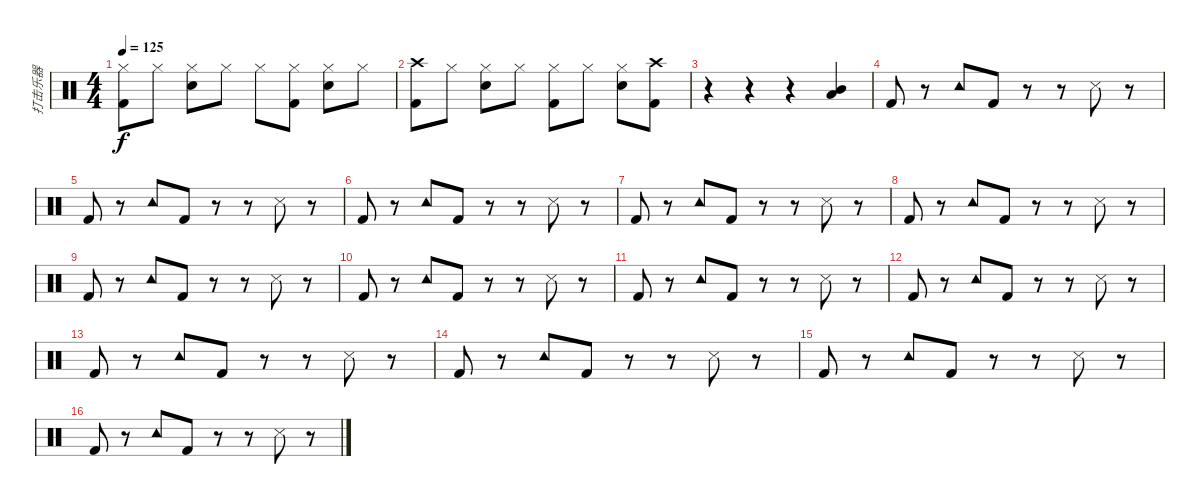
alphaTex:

\track ("打击乐器" "打击乐器") {instrument percussion}
\staff {score}
\articulation defaults
\ts (4 4)
\tempo 125
\clef neutral
\ks c
("Hi-Hat (closed)" "Kick (hit) 2").8{dy f} "Hi-Hat (closed)".8 ("Hi-Hat (closed)" "Snare (hit) 2").8 "Hi-Hat (closed)".8 "Hi-Hat (closed)".8 ("Hi-Hat (closed)" "Kick (hit) 2").8 ("Hi-Hat (closed)" "Snare (hit) 2").8 "Hi-Hat (closed)".8 |
("Crash high (hit)" "Kick (hit) 2").8 "Hi-Hat (closed)".8 ("Hi-Hat (closed)" "Snare (hit) 2").8 "Hi-Hat (closed)".8 ("Hi-Hat (closed)" "Kick (hit) 2").8 "Hi-Hat (closed)".8 ("Hi-Hat (closed)" "Snare (hit) 2").8 ("Crash high (hit)" "Kick (hit) 2").8 |
r.4 r.4 r.4 ("Mid Tom (hit)" "Low Tom (hit)").4 |
"Kick (hit) 2".8 r.8 "Tambourine (hit)".8 "Kick (hit) 2".8 r.8 r.8 "Snare (side stick) 3".8 r.8 |
"Kick (hit) 2".8 r.8 "Tambourine (hit)".8 "Kick (hit) 2".8 r.8 r.8 "Snare (side stick) 3".8 r.8 |
"Kick (hit) 2".8 r.8 "Tambourine (hit)".8 "Kick (hit) 2".8 r.8 r.8 "Snare (side stick) 3".8 r.8 |
"Kick (hit) 2".8 r.8 "Tambourine (hit)".8 "Kick (hit) 2".8 r.8 r.8 "Snare (side stick) 3".8 r.8 |
"Kick (hit) 2".8 r.8 "Tambourine (hit)".8 "Kick (hit) 2".8 r.8 r.8 "Snare (side stick) 3".8 r.8 |
"Kick (hit) 2".8 r.8 "Tambourine (hit)".8 "Kick (hit) 2".8 r.8 r.8 "Snare (side stick) 3".8 r.8 |
"Kick (hit) 2".8 r.8 "Tambourine (hit)".8 "Kick (hit) 2".8 r.8 r.8 "Snare (side stick) 3".8 r.8 |
"Kick (hit) 2".8 r.8 "Tambourine (hit)".8 "Kick (hit) 2".8 r.8 r.8 "Snare (side stick) 3".8 r.8 |
"Kick (hit) 2".8 r.8 "Tambourine (hit)".8 "Kick (hit) 2".8 r.8 r.8 "Snare (side stick) 3".8 r.8 |
"Kick (hit) 2".8 r.8 "Tambourine (hit)".8 "Kick (hit) 2".8 r.8 r.8 "Snare (side stick) 3".8 r.8 |
"Kick (hit) 2".8 r.8 "Tambourine (hit)".8 "Kick (hit) 2".8 r.8 r.8 "Snare (side stick) 3".8 r.8 |
"Kick (hit) 2".8 r.8 "Tambourine (hit)".8 "Kick (hit) 2".8 r.8 r.8 "Snare (side stick) 3".8 r.8 |
"Kick (hit) 2".8 r.8 "Tambourine (hit)".8 "Kick (hit) 2".8 r.8 r.8 "Snare (side stick) 3".8 r.8
